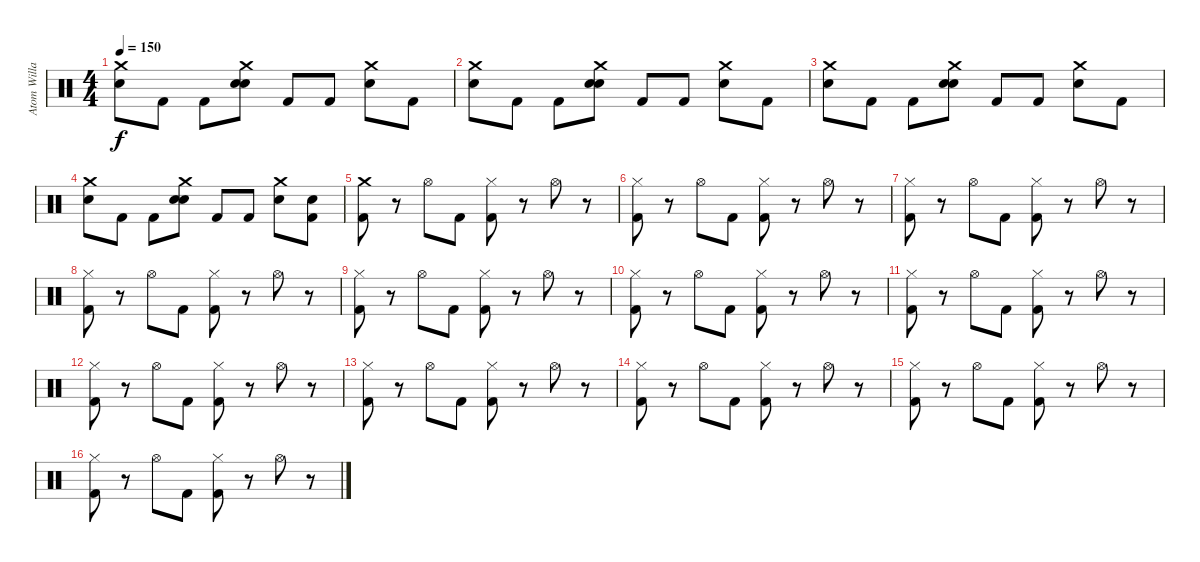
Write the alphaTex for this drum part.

\track ("Atom Willard - Drums" "Atom Willa") {instrument percussion}
\staff {score}
\articulation defaults
\ts (4 4)
\tempo 150
\clef neutral
\ks c
("Crash medium (hit)" "Electric Snare (hit)").8{dy f} "Kick (hit) 2".8 "Kick (hit) 2".8 ("Crash medium (hit)" "Electric Snare (hit)" "Snare (hit)").8 "Kick (hit) 2".8 "Kick (hit) 2".8 ("Crash medium (hit)" "Electric Snare (hit)").8 "Kick (hit) 2".8 |
("Crash medium (hit)" "Electric Snare (hit)").8 "Kick (hit) 2".8 "Kick (hit) 2".8 ("Crash medium (hit)" "Electric Snare (hit)" "Snare (hit)").8 "Kick (hit) 2".8 "Kick (hit) 2".8 ("Crash medium (hit)" "Electric Snare (hit)").8 "Kick (hit) 2".8 |
("Crash medium (hit)" "Electric Snare (hit)").8 "Kick (hit) 2".8 "Kick (hit) 2".8 ("Crash medium (hit)" "Electric Snare (hit)" "Snare (hit)").8 "Kick (hit) 2".8 "Kick (hit) 2".8 ("Crash medium (hit)" "Electric Snare (hit)").8 "Kick (hit) 2".8 |
("Crash medium (hit)" "Electric Snare (hit)").8 "Kick (hit) 2".8 "Kick (hit) 2".8 ("Crash medium (hit)" "Electric Snare (hit)" "Snare (hit)").8 "Kick (hit) 2".8 "Kick (hit) 2".8 ("Crash medium (hit)" "Electric Snare (hit)").8 ("Electric Snare (hit)" "Kick (hit) 2").8 |
("Crash medium (hit)" "Kick (hit) 2").8 r.8 "Hi-Hat (open)".8 "Kick (hit) 2".8 ("Hi-Hat (closed)" "Kick (hit) 2").8 r.8 "Hi-Hat (open)".8 r.8 |
("Hi-Hat (closed)" "Kick (hit) 2").8 r.8 "Hi-Hat (open)".8 "Kick (hit) 2".8 ("Hi-Hat (closed)" "Kick (hit) 2").8 r.8 "Hi-Hat (open)".8 r.8 |
("Hi-Hat (closed)" "Kick (hit) 2").8 r.8 "Hi-Hat (open)".8 "Kick (hit) 2".8 ("Hi-Hat (closed)" "Kick (hit) 2").8 r.8 "Hi-Hat (open)".8 r.8 |
("Hi-Hat (closed)" "Kick (hit) 2").8 r.8 "Hi-Hat (open)".8 "Kick (hit) 2".8 ("Hi-Hat (closed)" "Kick (hit) 2").8 r.8 "Hi-Hat (open)".8 r.8 |
("Hi-Hat (closed)" "Kick (hit) 2").8 r.8 "Hi-Hat (open)".8 "Kick (hit) 2".8 ("Hi-Hat (closed)" "Kick (hit) 2").8 r.8 "Hi-Hat (open)".8 r.8 |
("Hi-Hat (closed)" "Kick (hit) 2").8 r.8 "Hi-Hat (open)".8 "Kick (hit) 2".8 ("Hi-Hat (closed)" "Kick (hit) 2").8 r.8 "Hi-Hat (open)".8 r.8 |
("Hi-Hat (closed)" "Kick (hit) 2").8 r.8 "Hi-Hat (open)".8 "Kick (hit) 2".8 ("Hi-Hat (closed)" "Kick (hit) 2").8 r.8 "Hi-Hat (open)".8 r.8 |
("Hi-Hat (closed)" "Kick (hit) 2").8 r.8 "Hi-Hat (open)".8 "Kick (hit) 2".8 ("Hi-Hat (closed)" "Kick (hit) 2").8 r.8 "Hi-Hat (open)".8 r.8 |
("Hi-Hat (closed)" "Kick (hit) 2").8 r.8 "Hi-Hat (open)".8 "Kick (hit) 2".8 ("Hi-Hat (closed)" "Kick (hit) 2").8 r.8 "Hi-Hat (open)".8 r.8 |
("Hi-Hat (closed)" "Kick (hit) 2").8 r.8 "Hi-Hat (open)".8 "Kick (hit) 2".8 ("Hi-Hat (closed)" "Kick (hit) 2").8 r.8 "Hi-Hat (open)".8 r.8 |
("Hi-Hat (closed)" "Kick (hit) 2").8 r.8 "Hi-Hat (open)".8 "Kick (hit) 2".8 ("Hi-Hat (closed)" "Kick (hit) 2").8 r.8 "Hi-Hat (open)".8 r.8 |
("Hi-Hat (closed)" "Kick (hit) 2").8 r.8 "Hi-Hat (open)".8 "Kick (hit) 2".8 ("Hi-Hat (closed)" "Kick (hit) 2").8 r.8 "Hi-Hat (open)".8 r.8
